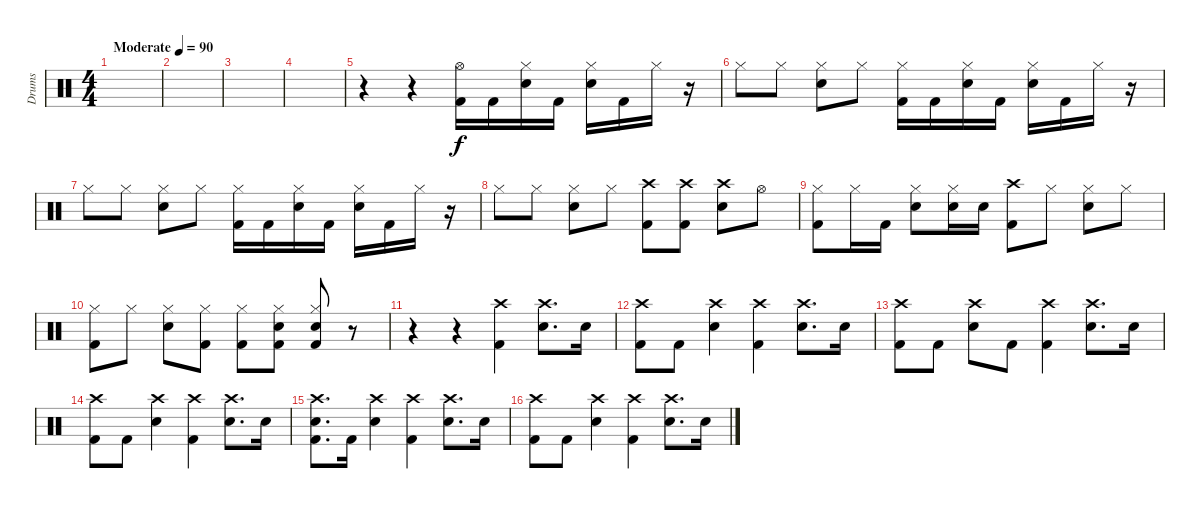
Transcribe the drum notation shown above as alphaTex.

\track ("Drums" "Drums") {instrument percussion}
\staff {score}
\articulation defaults
\ts (4 4)
\tempo (90 "Moderate")
\clef neutral
\ks c
|
|
|
|
r.4 r.4 ("Hi-Hat (open)" "Kick (hit) 2").16 "Kick (hit) 2".16 ("Hi-Hat (closed)" "Snare (hit) 2").16 "Kick (hit) 2".16 ("Hi-Hat (closed)" "Snare (hit) 2").16 "Kick (hit) 2".16 "Hi-Hat (closed)".16 r.16 |
"Hi-Hat (closed)".8 "Hi-Hat (closed)".8 ("Hi-Hat (closed)" "Snare (hit) 2").8 "Hi-Hat (closed)".8 ("Hi-Hat (closed)" "Kick (hit) 2").16 "Kick (hit) 2".16 ("Hi-Hat (closed)" "Snare (hit) 2").16 "Kick (hit) 2".16 ("Hi-Hat (closed)" "Snare (hit) 2").16 "Kick (hit) 2".16 "Hi-Hat (closed)".16 r.16 |
"Hi-Hat (closed)".8 "Hi-Hat (closed)".8 ("Hi-Hat (closed)" "Snare (hit) 2").8 "Hi-Hat (closed)".8 ("Hi-Hat (closed)" "Kick (hit) 2").16 "Kick (hit) 2".16 ("Hi-Hat (closed)" "Snare (hit) 2").16 "Kick (hit) 2".16 ("Hi-Hat (closed)" "Snare (hit) 2").16 "Kick (hit) 2".16 "Hi-Hat (closed)".16 r.16 |
"Hi-Hat (closed)".8 "Hi-Hat (closed)".8 ("Hi-Hat (closed)" "Snare (hit) 2").8 "Hi-Hat (closed)".8 ("Crash high (hit)" "Kick (hit) 2").8 ("Crash high (hit)" "Kick (hit) 2").8 ("Crash high (hit)" "Snare (hit) 2").8 "Hi-Hat (open)".8 |
("Hi-Hat (closed)" "Kick (hit) 2").8 "Hi-Hat (closed)".16 "Kick (hit) 2".16 ("Hi-Hat (closed)" "Snare (hit) 2").8 ("Hi-Hat (closed)" "Snare (hit) 2").16 "Snare (hit) 2".16 ("Crash high (hit)" "Kick (hit) 2").8 "Hi-Hat (closed)".8 ("Hi-Hat (closed)" "Snare (hit) 2").8 "Hi-Hat (closed)".8 |
("Hi-Hat (closed)" "Kick (hit) 2").8 "Hi-Hat (closed)".8 ("Hi-Hat (closed)" "Snare (hit) 2").8 ("Hi-Hat (closed)" "Kick (hit) 2").8 ("Hi-Hat (closed)" "Kick (hit) 2").8 ("Hi-Hat (closed)" "Snare (hit) 2" "Kick (hit) 2").8 ("Hi-Hat (closed)" "Snare (hit) 2" "Kick (hit) 2").8 r.8 |
r.4 r.4 ("Crash high (hit)" "Kick (hit) 2").4 ("Crash high (hit)" "Snare (hit) 2").8{d} "Snare (hit) 2".16 |
("Crash high (hit)" "Kick (hit) 2").8 "Kick (hit) 2".8 ("Crash high (hit)" "Snare (hit) 2").4 ("Crash high (hit)" "Kick (hit) 2").4 ("Crash high (hit)" "Snare (hit) 2").8{d} "Snare (hit) 2".16 |
("Crash high (hit)" "Kick (hit) 2").8 "Kick (hit) 2".8 ("Crash high (hit)" "Snare (hit) 2").8 "Kick (hit) 2".8 ("Crash high (hit)" "Kick (hit) 2").4 ("Crash high (hit)" "Snare (hit) 2").8{d} "Snare (hit) 2".16 |
("Crash high (hit)" "Kick (hit) 2").8 "Kick (hit) 2".8 ("Crash high (hit)" "Snare (hit) 2").4 ("Crash high (hit)" "Kick (hit) 2").4 ("Crash high (hit)" "Snare (hit) 2").8{d} "Snare (hit) 2".16 |
("Crash high (hit)" "Snare (hit) 2" "Kick (hit) 2").8{d} "Kick (hit) 2".16 ("Crash high (hit)" "Snare (hit) 2").4 ("Crash high (hit)" "Kick (hit) 2").4 ("Crash high (hit)" "Snare (hit) 2").8{d} "Snare (hit) 2".16 |
("Crash high (hit)" "Kick (hit) 2").8 "Kick (hit) 2".8 ("Crash high (hit)" "Snare (hit) 2").4 ("Crash high (hit)" "Kick (hit) 2").4 ("Crash high (hit)" "Snare (hit) 2").8{d} "Snare (hit) 2".16
